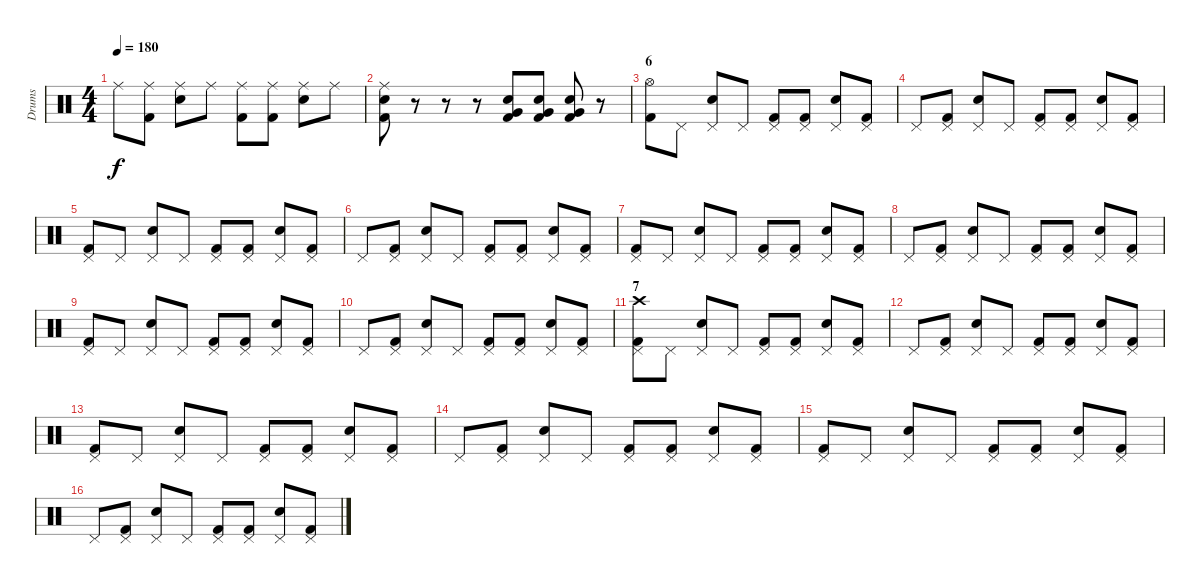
\track ("Drums" "Drums") {instrument percussion}
\staff {score}
\articulation defaults
\ts (4 4)
\tempo 180
\clef neutral
\ks c "Ride (middle)".8{dy f}
("Ride (middle)" "Kick (hit) 2").8 ("Ride (middle)" "Electric Snare (hit)").8 "Ride (middle)".8 ("Ride (middle)" "Kick (hit) 2").8 ("Ride (middle)" "Kick (hit) 2").8 ("Ride (middle)" "Electric Snare (hit)").8 "Ride (middle)".8 |
("Ride (middle)" "Electric Snare (hit)" "Kick (hit) 2").8 r.8 r.8 r.8 ("Very Low Tom (hit)" "Electric Snare (hit)" "Kick (hit) 2").8 ("Very Low Tom (hit)" "Electric Snare (hit)" "Kick (hit) 2").8 ("Very Low Tom (hit)" "Electric Snare (hit)" "Kick (hit) 2").8 r.8 |
\section ("" "6")
("Hi-Hat (open)" "Kick (hit) 2").8 "Pedal Hi-Hat (hit)".8 ("Pedal Hi-Hat (hit)" "Electric Snare (hit)").8 "Pedal Hi-Hat (hit)".8 ("Pedal Hi-Hat (hit)" "Kick (hit) 2").8 ("Pedal Hi-Hat (hit)" "Kick (hit) 2").8 ("Pedal Hi-Hat (hit)" "Electric Snare (hit)").8 ("Pedal Hi-Hat (hit)" "Kick (hit) 2").8 |
"Pedal Hi-Hat (hit)".8 ("Pedal Hi-Hat (hit)" "Kick (hit) 2").8 ("Pedal Hi-Hat (hit)" "Electric Snare (hit)").8 "Pedal Hi-Hat (hit)".8 ("Pedal Hi-Hat (hit)" "Kick (hit) 2").8 ("Pedal Hi-Hat (hit)" "Kick (hit) 2").8 ("Pedal Hi-Hat (hit)" "Electric Snare (hit)").8 ("Pedal Hi-Hat (hit)" "Kick (hit) 2").8 |
("Pedal Hi-Hat (hit)" "Kick (hit) 2").8 "Pedal Hi-Hat (hit)".8 ("Pedal Hi-Hat (hit)" "Electric Snare (hit)").8 "Pedal Hi-Hat (hit)".8 ("Pedal Hi-Hat (hit)" "Kick (hit) 2").8 ("Pedal Hi-Hat (hit)" "Kick (hit) 2").8 ("Pedal Hi-Hat (hit)" "Electric Snare (hit)").8 ("Pedal Hi-Hat (hit)" "Kick (hit) 2").8 |
"Pedal Hi-Hat (hit)".8 ("Pedal Hi-Hat (hit)" "Kick (hit) 2").8 ("Pedal Hi-Hat (hit)" "Electric Snare (hit)").8 "Pedal Hi-Hat (hit)".8 ("Pedal Hi-Hat (hit)" "Kick (hit) 2").8 ("Pedal Hi-Hat (hit)" "Kick (hit) 2").8 ("Pedal Hi-Hat (hit)" "Electric Snare (hit)").8 ("Pedal Hi-Hat (hit)" "Kick (hit) 2").8 |
("Pedal Hi-Hat (hit)" "Kick (hit) 2").8 "Pedal Hi-Hat (hit)".8 ("Pedal Hi-Hat (hit)" "Electric Snare (hit)").8 "Pedal Hi-Hat (hit)".8 ("Pedal Hi-Hat (hit)" "Kick (hit) 2").8 ("Pedal Hi-Hat (hit)" "Kick (hit) 2").8 ("Pedal Hi-Hat (hit)" "Electric Snare (hit)").8 ("Pedal Hi-Hat (hit)" "Kick (hit) 2").8 |
"Pedal Hi-Hat (hit)".8 ("Pedal Hi-Hat (hit)" "Kick (hit) 2").8 ("Pedal Hi-Hat (hit)" "Electric Snare (hit)").8 "Pedal Hi-Hat (hit)".8 ("Pedal Hi-Hat (hit)" "Kick (hit) 2").8 ("Pedal Hi-Hat (hit)" "Kick (hit) 2").8 ("Pedal Hi-Hat (hit)" "Electric Snare (hit)").8 ("Pedal Hi-Hat (hit)" "Kick (hit) 2").8 |
("Pedal Hi-Hat (hit)" "Kick (hit) 2").8 "Pedal Hi-Hat (hit)".8 ("Pedal Hi-Hat (hit)" "Electric Snare (hit)").8 "Pedal Hi-Hat (hit)".8 ("Pedal Hi-Hat (hit)" "Kick (hit) 2").8 ("Pedal Hi-Hat (hit)" "Kick (hit) 2").8 ("Pedal Hi-Hat (hit)" "Electric Snare (hit)").8 ("Pedal Hi-Hat (hit)" "Kick (hit) 2").8 |
"Pedal Hi-Hat (hit)".8 ("Pedal Hi-Hat (hit)" "Kick (hit) 2").8 ("Pedal Hi-Hat (hit)" "Electric Snare (hit)").8 "Pedal Hi-Hat (hit)".8 ("Pedal Hi-Hat (hit)" "Kick (hit) 2").8 ("Pedal Hi-Hat (hit)" "Kick (hit) 2").8 ("Pedal Hi-Hat (hit)" "Electric Snare (hit)").8 ("Pedal Hi-Hat (hit)" "Kick (hit) 2").8 |
\section ("" "7")
("Crash high (hit)" "Pedal Hi-Hat (hit)" "Kick (hit) 2").8 "Pedal Hi-Hat (hit)".8 ("Pedal Hi-Hat (hit)" "Electric Snare (hit)").8 "Pedal Hi-Hat (hit)".8 ("Pedal Hi-Hat (hit)" "Kick (hit) 2").8 ("Pedal Hi-Hat (hit)" "Kick (hit) 2").8 ("Pedal Hi-Hat (hit)" "Electric Snare (hit)").8 ("Pedal Hi-Hat (hit)" "Kick (hit) 2").8 |
"Pedal Hi-Hat (hit)".8 ("Pedal Hi-Hat (hit)" "Kick (hit) 2").8 ("Pedal Hi-Hat (hit)" "Electric Snare (hit)").8 "Pedal Hi-Hat (hit)".8 ("Pedal Hi-Hat (hit)" "Kick (hit) 2").8 ("Pedal Hi-Hat (hit)" "Kick (hit) 2").8 ("Pedal Hi-Hat (hit)" "Electric Snare (hit)").8 ("Pedal Hi-Hat (hit)" "Kick (hit) 2").8 |
("Pedal Hi-Hat (hit)" "Kick (hit) 2").8 "Pedal Hi-Hat (hit)".8 ("Pedal Hi-Hat (hit)" "Electric Snare (hit)").8 "Pedal Hi-Hat (hit)".8 ("Pedal Hi-Hat (hit)" "Kick (hit) 2").8 ("Pedal Hi-Hat (hit)" "Kick (hit) 2").8 ("Pedal Hi-Hat (hit)" "Electric Snare (hit)").8 ("Pedal Hi-Hat (hit)" "Kick (hit) 2").8 |
"Pedal Hi-Hat (hit)".8 ("Pedal Hi-Hat (hit)" "Kick (hit) 2").8 ("Pedal Hi-Hat (hit)" "Electric Snare (hit)").8 "Pedal Hi-Hat (hit)".8 ("Pedal Hi-Hat (hit)" "Kick (hit) 2").8 ("Pedal Hi-Hat (hit)" "Kick (hit) 2").8 ("Pedal Hi-Hat (hit)" "Electric Snare (hit)").8 ("Pedal Hi-Hat (hit)" "Kick (hit) 2").8 |
("Pedal Hi-Hat (hit)" "Kick (hit) 2").8 "Pedal Hi-Hat (hit)".8 ("Pedal Hi-Hat (hit)" "Electric Snare (hit)").8 "Pedal Hi-Hat (hit)".8 ("Pedal Hi-Hat (hit)" "Kick (hit) 2").8 ("Pedal Hi-Hat (hit)" "Kick (hit) 2").8 ("Pedal Hi-Hat (hit)" "Electric Snare (hit)").8 ("Pedal Hi-Hat (hit)" "Kick (hit) 2").8 |
"Pedal Hi-Hat (hit)".8 ("Pedal Hi-Hat (hit)" "Kick (hit) 2").8 ("Pedal Hi-Hat (hit)" "Electric Snare (hit)").8 "Pedal Hi-Hat (hit)".8 ("Pedal Hi-Hat (hit)" "Kick (hit) 2").8 ("Pedal Hi-Hat (hit)" "Kick (hit) 2").8 ("Pedal Hi-Hat (hit)" "Electric Snare (hit)").8 ("Pedal Hi-Hat (hit)" "Kick (hit) 2").8
